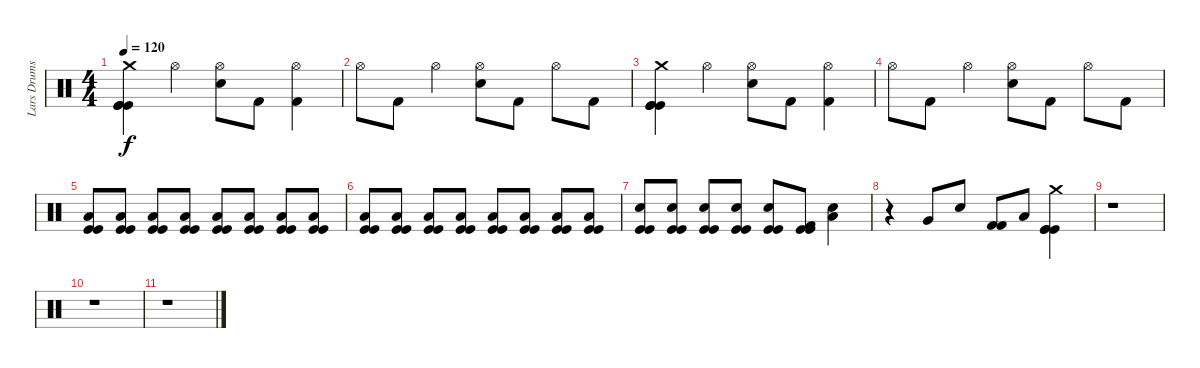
\track ("Lars Drums" "Lars Drums") {instrument percussion}
\staff {score}
\articulation defaults
\ts (4 4)
\tempo 120
\clef neutral
\ks c
("Kick (hit)" "Kick (hit)" "Kick (hit)" "Crash medium (hit)").4{dy f} "Hi-Hat (open)".4 ("Hi-Hat (open)" "Electric Snare (hit)").8 "Kick (hit) 2".8 ("Hi-Hat (open)" "Kick (hit) 2").4 |
"Hi-Hat (open)".8 "Kick (hit) 2".8 "Hi-Hat (open)".4 ("Hi-Hat (open)" "Electric Snare (hit)").8 "Kick (hit) 2".8 "Hi-Hat (open)".8 "Kick (hit) 2".8 |
("Kick (hit)" "Kick (hit)" "Kick (hit)" "Crash medium (hit)").4 "Hi-Hat (open)".4 ("Hi-Hat (open)" "Electric Snare (hit)").8 "Kick (hit) 2".8 ("Hi-Hat (open)" "Kick (hit) 2").4 |
"Hi-Hat (open)".8 "Kick (hit) 2".8 "Hi-Hat (open)".4 ("Hi-Hat (open)" "Electric Snare (hit)").8 "Kick (hit) 2".8 "Hi-Hat (open)".8 "Kick (hit) 2".8 |
("Low Tom (hit)" "Kick (hit)" "Kick (hit)").8 ("Low Tom (hit)" "Kick (hit)" "Kick (hit)").8 ("Low Tom (hit)" "Kick (hit)" "Kick (hit)").8 ("Low Tom (hit)" "Kick (hit)" "Kick (hit)").8 ("Low Tom (hit)" "Kick (hit)" "Kick (hit)").8 ("Low Tom (hit)" "Kick (hit)" "Kick (hit)").8 ("Low Tom (hit)" "Kick (hit)" "Kick (hit)").8 ("Low Tom (hit)" "Kick (hit)" "Kick (hit)").8 |
("Low Tom (hit)" "Kick (hit)" "Kick (hit)").8 ("Low Tom (hit)" "Kick (hit)" "Kick (hit)").8 ("Low Tom (hit)" "Kick (hit)" "Kick (hit)").8 ("Low Tom (hit)" "Kick (hit)" "Kick (hit)").8 ("Low Tom (hit)" "Kick (hit)" "Kick (hit)").8 ("Low Tom (hit)" "Kick (hit)" "Kick (hit)").8 ("Low Tom (hit)" "Kick (hit)" "Kick (hit)").8 ("Low Tom (hit)" "Kick (hit)" "Kick (hit)").8 |
("Electric Snare (hit)" "Kick (hit)" "Kick (hit)").8 ("Electric Snare (hit)" "Kick (hit)" "Kick (hit)").8 ("Electric Snare (hit)" "Kick (hit)" "Kick (hit)").8 ("Electric Snare (hit)" "Kick (hit)" "Kick (hit)").8 ("Electric Snare (hit)" "Kick (hit)" "Kick (hit)").8 ("Kick (hit) 2" "Kick (hit)" "Kick (hit)").8 ("Electric Snare (hit)" "Low Floor Tom (hit)").4 |
r.4 "Very Low Tom (hit)".8 "Electric Snare (hit)".8 ("Kick (hit) 2" "Kick (hit) 2").8 "Low Tom (hit)".8 ("Kick (hit)" "Kick (hit)" "Kick (hit)" "Crash medium (hit)").4 |
r.1 |
r.1 |
r.1
